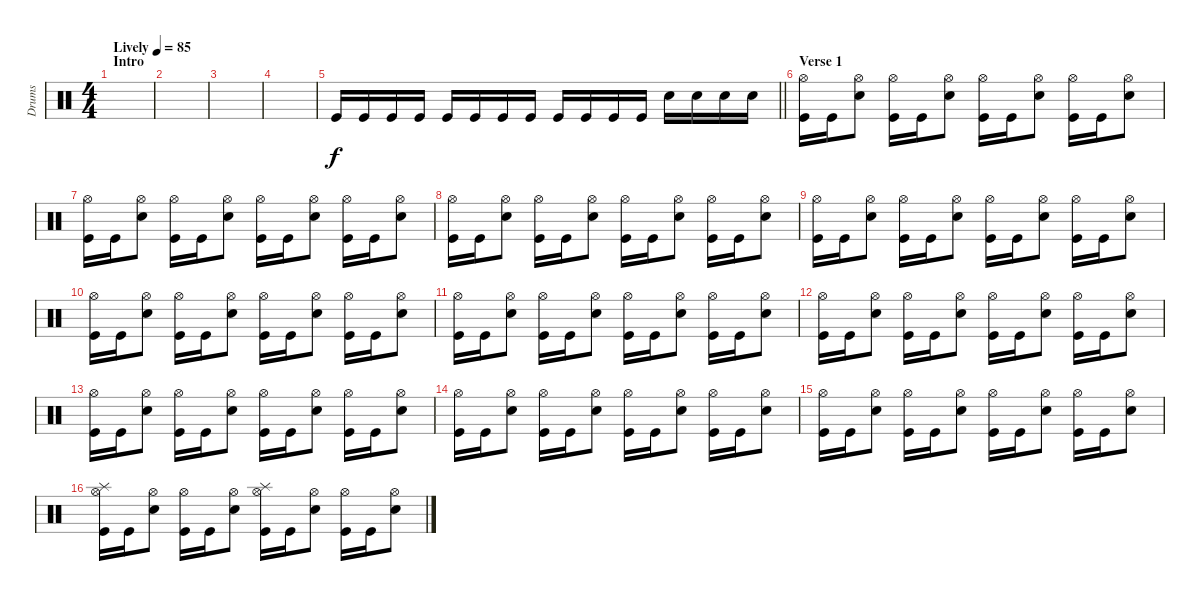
\track ("Drums" "Drums") {instrument percussion}
\staff {score}
\articulation defaults
\ts (4 4)
\section ("" "Intro")
\tempo (85 "Lively")
\clef neutral
\ks c
|
|
|
|
\barLineRight lightlight "Kick (hit)".16 "Kick (hit)".16 "Kick (hit)".16 "Kick (hit)".16 "Kick (hit)".16 "Kick (hit)".16 "Kick (hit)".16 "Kick (hit)".16 "Kick (hit)".16 "Kick (hit)".16 "Kick (hit)".16 "Kick (hit)".16 "Snare (hit) 2".16 "Snare (hit) 2".16 "Snare (hit) 2".16 "Snare (hit) 2".16
|
\section ("" "Verse 1")
("Hi-Hat (open)" "Kick (hit)").16 "Kick (hit)".16 ("Hi-Hat (open)" "Snare (hit) 2").8 ("Hi-Hat (open)" "Kick (hit)").16 "Kick (hit)".16 ("Hi-Hat (open)" "Snare (hit) 2").8 ("Hi-Hat (open)" "Kick (hit)").16 "Kick (hit)".16 ("Hi-Hat (open)" "Snare (hit) 2").8 ("Hi-Hat (open)" "Kick (hit)").16 "Kick (hit)".16 ("Hi-Hat (open)" "Snare (hit) 2").8 |
("Hi-Hat (open)" "Kick (hit)").16 "Kick (hit)".16 ("Hi-Hat (open)" "Snare (hit) 2").8 ("Hi-Hat (open)" "Kick (hit)").16 "Kick (hit)".16 ("Hi-Hat (open)" "Snare (hit) 2").8 ("Hi-Hat (open)" "Kick (hit)").16 "Kick (hit)".16 ("Hi-Hat (open)" "Snare (hit) 2").8 ("Hi-Hat (open)" "Kick (hit)").16 "Kick (hit)".16 ("Hi-Hat (open)" "Snare (hit) 2").8 |
("Hi-Hat (open)" "Kick (hit)").16 "Kick (hit)".16 ("Hi-Hat (open)" "Snare (hit) 2").8 ("Hi-Hat (open)" "Kick (hit)").16 "Kick (hit)".16 ("Hi-Hat (open)" "Snare (hit) 2").8 ("Hi-Hat (open)" "Kick (hit)").16 "Kick (hit)".16 ("Hi-Hat (open)" "Snare (hit) 2").8 ("Hi-Hat (open)" "Kick (hit)").16 "Kick (hit)".16 ("Hi-Hat (open)" "Snare (hit) 2").8 |
("Hi-Hat (open)" "Kick (hit)").16 "Kick (hit)".16 ("Hi-Hat (open)" "Snare (hit) 2").8 ("Hi-Hat (open)" "Kick (hit)").16 "Kick (hit)".16 ("Hi-Hat (open)" "Snare (hit) 2").8 ("Hi-Hat (open)" "Kick (hit)").16 "Kick (hit)".16 ("Hi-Hat (open)" "Snare (hit) 2").8 ("Hi-Hat (open)" "Kick (hit)").16 "Kick (hit)".16 ("Hi-Hat (open)" "Snare (hit) 2").8 |
("Hi-Hat (open)" "Kick (hit)").16 "Kick (hit)".16 ("Hi-Hat (open)" "Snare (hit) 2").8 ("Hi-Hat (open)" "Kick (hit)").16 "Kick (hit)".16 ("Hi-Hat (open)" "Snare (hit) 2").8 ("Hi-Hat (open)" "Kick (hit)").16 "Kick (hit)".16 ("Hi-Hat (open)" "Snare (hit) 2").8 ("Hi-Hat (open)" "Kick (hit)").16 "Kick (hit)".16 ("Hi-Hat (open)" "Snare (hit) 2").8 |
("Hi-Hat (open)" "Kick (hit)").16 "Kick (hit)".16 ("Hi-Hat (open)" "Snare (hit) 2").8 ("Hi-Hat (open)" "Kick (hit)").16 "Kick (hit)".16 ("Hi-Hat (open)" "Snare (hit) 2").8 ("Hi-Hat (open)" "Kick (hit)").16 "Kick (hit)".16 ("Hi-Hat (open)" "Snare (hit) 2").8 ("Hi-Hat (open)" "Kick (hit)").16 "Kick (hit)".16 ("Hi-Hat (open)" "Snare (hit) 2").8 |
("Hi-Hat (open)" "Kick (hit)").16 "Kick (hit)".16 ("Hi-Hat (open)" "Snare (hit) 2").8 ("Hi-Hat (open)" "Kick (hit)").16 "Kick (hit)".16 ("Hi-Hat (open)" "Snare (hit) 2").8 ("Hi-Hat (open)" "Kick (hit)").16 "Kick (hit)".16 ("Hi-Hat (open)" "Snare (hit) 2").8 ("Hi-Hat (open)" "Kick (hit)").16 "Kick (hit)".16 ("Hi-Hat (open)" "Snare (hit) 2").8 |
("Hi-Hat (open)" "Kick (hit)").16 "Kick (hit)".16 ("Hi-Hat (open)" "Snare (hit) 2").8 ("Hi-Hat (open)" "Kick (hit)").16 "Kick (hit)".16 ("Hi-Hat (open)" "Snare (hit) 2").8 ("Hi-Hat (open)" "Kick (hit)").16 "Kick (hit)".16 ("Hi-Hat (open)" "Snare (hit) 2").8 ("Hi-Hat (open)" "Kick (hit)").16 "Kick (hit)".16 ("Hi-Hat (open)" "Snare (hit) 2").8 |
("Hi-Hat (open)" "Kick (hit)").16 "Kick (hit)".16 ("Hi-Hat (open)" "Snare (hit) 2").8 ("Hi-Hat (open)" "Kick (hit)").16 "Kick (hit)".16 ("Hi-Hat (open)" "Snare (hit) 2").8 ("Hi-Hat (open)" "Kick (hit)").16 "Kick (hit)".16 ("Hi-Hat (open)" "Snare (hit) 2").8 ("Hi-Hat (open)" "Kick (hit)").16 "Kick (hit)".16 ("Hi-Hat (open)" "Snare (hit) 2").8 |
("Hi-Hat (open)" "Kick (hit)").16 "Kick (hit)".16 ("Hi-Hat (open)" "Snare (hit) 2").8 ("Hi-Hat (open)" "Kick (hit)").16 "Kick (hit)".16 ("Hi-Hat (open)" "Snare (hit) 2").8 ("Hi-Hat (open)" "Kick (hit)").16 "Kick (hit)".16 ("Hi-Hat (open)" "Snare (hit) 2").8 ("Hi-Hat (open)" "Kick (hit)").16 "Kick (hit)".16 ("Hi-Hat (open)" "Snare (hit) 2").8 |
("Splash (hit)" "Hi-Hat (open)" "Kick (hit)").16 "Kick (hit)".16 ("Hi-Hat (open)" "Snare (hit) 2").8 ("Hi-Hat (open)" "Kick (hit)").16 "Kick (hit)".16 ("Hi-Hat (open)" "Snare (hit) 2").8 ("Splash (hit)" "Hi-Hat (open)" "Kick (hit)").16 "Kick (hit)".16 ("Hi-Hat (open)" "Snare (hit) 2").8 ("Hi-Hat (open)" "Kick (hit)").16 "Kick (hit)".16 ("Hi-Hat (open)" "Snare (hit) 2").8
